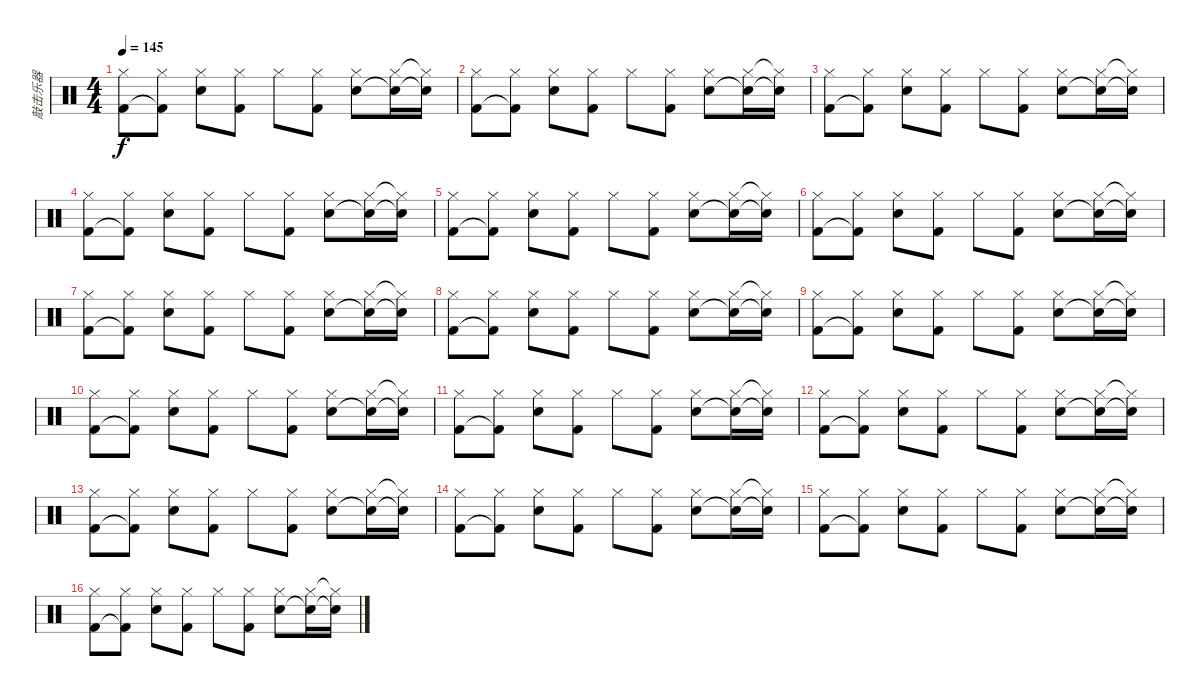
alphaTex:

\track ("敲击乐器" "敲击乐器") {instrument percussion}
\staff {score}
\articulation defaults
\ts (4 4)
\tempo 145
\clef neutral
\ks c
("Hi-Hat (closed)" "Kick (hit) 2").8{dy f} ("Hi-Hat (closed)" "Kick (hit) 2"{t}).8 ("Hi-Hat (closed)" "Snare (hit) 2").8 ("Hi-Hat (closed)" "Kick (hit) 2").8 "Hi-Hat (closed)".8 ("Hi-Hat (closed)" "Kick (hit) 2").8 ("Hi-Hat (closed)" "Snare (hit) 2").8 ("Hi-Hat (closed)" "Snare (hit) 2"{t}).16 ("Hi-Hat (closed)"{t} "Snare (hit) 2"{t}).16 |
("Hi-Hat (closed)" "Kick (hit) 2").8 ("Hi-Hat (closed)" "Kick (hit) 2"{t}).8 ("Hi-Hat (closed)" "Snare (hit) 2").8 ("Hi-Hat (closed)" "Kick (hit) 2").8 "Hi-Hat (closed)".8 ("Hi-Hat (closed)" "Kick (hit) 2").8 ("Hi-Hat (closed)" "Snare (hit) 2").8 ("Hi-Hat (closed)" "Snare (hit) 2"{t}).16 ("Hi-Hat (closed)"{t} "Snare (hit) 2"{t}).16 |
("Hi-Hat (closed)" "Kick (hit) 2").8 ("Hi-Hat (closed)" "Kick (hit) 2"{t}).8 ("Hi-Hat (closed)" "Snare (hit) 2").8 ("Hi-Hat (closed)" "Kick (hit) 2").8 "Hi-Hat (closed)".8 ("Hi-Hat (closed)" "Kick (hit) 2").8 ("Hi-Hat (closed)" "Snare (hit) 2").8 ("Hi-Hat (closed)" "Snare (hit) 2"{t}).16 ("Hi-Hat (closed)"{t} "Snare (hit) 2"{t}).16 |
("Hi-Hat (closed)" "Kick (hit) 2").8 ("Hi-Hat (closed)" "Kick (hit) 2"{t}).8 ("Hi-Hat (closed)" "Snare (hit) 2").8 ("Hi-Hat (closed)" "Kick (hit) 2").8 "Hi-Hat (closed)".8 ("Hi-Hat (closed)" "Kick (hit) 2").8 ("Hi-Hat (closed)" "Snare (hit) 2").8 ("Hi-Hat (closed)" "Snare (hit) 2"{t}).16 ("Hi-Hat (closed)"{t} "Snare (hit) 2"{t}).16 |
("Hi-Hat (closed)" "Kick (hit) 2").8 ("Hi-Hat (closed)" "Kick (hit) 2"{t}).8 ("Hi-Hat (closed)" "Snare (hit) 2").8 ("Hi-Hat (closed)" "Kick (hit) 2").8 "Hi-Hat (closed)".8 ("Hi-Hat (closed)" "Kick (hit) 2").8 ("Hi-Hat (closed)" "Snare (hit) 2").8 ("Hi-Hat (closed)" "Snare (hit) 2"{t}).16 ("Hi-Hat (closed)"{t} "Snare (hit) 2"{t}).16 |
("Hi-Hat (closed)" "Kick (hit) 2").8 ("Hi-Hat (closed)" "Kick (hit) 2"{t}).8 ("Hi-Hat (closed)" "Snare (hit) 2").8 ("Hi-Hat (closed)" "Kick (hit) 2").8 "Hi-Hat (closed)".8 ("Hi-Hat (closed)" "Kick (hit) 2").8 ("Hi-Hat (closed)" "Snare (hit) 2").8 ("Hi-Hat (closed)" "Snare (hit) 2"{t}).16 ("Hi-Hat (closed)"{t} "Snare (hit) 2"{t}).16 |
("Hi-Hat (closed)" "Kick (hit) 2").8 ("Hi-Hat (closed)" "Kick (hit) 2"{t}).8 ("Hi-Hat (closed)" "Snare (hit) 2").8 ("Hi-Hat (closed)" "Kick (hit) 2").8 "Hi-Hat (closed)".8 ("Hi-Hat (closed)" "Kick (hit) 2").8 ("Hi-Hat (closed)" "Snare (hit) 2").8 ("Hi-Hat (closed)" "Snare (hit) 2"{t}).16 ("Hi-Hat (closed)"{t} "Snare (hit) 2"{t}).16 |
("Hi-Hat (closed)" "Kick (hit) 2").8 ("Hi-Hat (closed)" "Kick (hit) 2"{t}).8 ("Hi-Hat (closed)" "Snare (hit) 2").8 ("Hi-Hat (closed)" "Kick (hit) 2").8 "Hi-Hat (closed)".8 ("Hi-Hat (closed)" "Kick (hit) 2").8 ("Hi-Hat (closed)" "Snare (hit) 2").8 ("Hi-Hat (closed)" "Snare (hit) 2"{t}).16 ("Hi-Hat (closed)"{t} "Snare (hit) 2"{t}).16 |
("Hi-Hat (closed)" "Kick (hit) 2").8 ("Hi-Hat (closed)" "Kick (hit) 2"{t}).8 ("Hi-Hat (closed)" "Snare (hit) 2").8 ("Hi-Hat (closed)" "Kick (hit) 2").8 "Hi-Hat (closed)".8 ("Hi-Hat (closed)" "Kick (hit) 2").8 ("Hi-Hat (closed)" "Snare (hit) 2").8 ("Hi-Hat (closed)" "Snare (hit) 2"{t}).16 ("Hi-Hat (closed)"{t} "Snare (hit) 2"{t}).16 |
("Hi-Hat (closed)" "Kick (hit) 2").8 ("Hi-Hat (closed)" "Kick (hit) 2"{t}).8 ("Hi-Hat (closed)" "Snare (hit) 2").8 ("Hi-Hat (closed)" "Kick (hit) 2").8 "Hi-Hat (closed)".8 ("Hi-Hat (closed)" "Kick (hit) 2").8 ("Hi-Hat (closed)" "Snare (hit) 2").8 ("Hi-Hat (closed)" "Snare (hit) 2"{t}).16 ("Hi-Hat (closed)"{t} "Snare (hit) 2"{t}).16 |
("Hi-Hat (closed)" "Kick (hit) 2").8 ("Hi-Hat (closed)" "Kick (hit) 2"{t}).8 ("Hi-Hat (closed)" "Snare (hit) 2").8 ("Hi-Hat (closed)" "Kick (hit) 2").8 "Hi-Hat (closed)".8 ("Hi-Hat (closed)" "Kick (hit) 2").8 ("Hi-Hat (closed)" "Snare (hit) 2").8 ("Hi-Hat (closed)" "Snare (hit) 2"{t}).16 ("Hi-Hat (closed)"{t} "Snare (hit) 2"{t}).16 |
("Hi-Hat (closed)" "Kick (hit) 2").8 ("Hi-Hat (closed)" "Kick (hit) 2"{t}).8 ("Hi-Hat (closed)" "Snare (hit) 2").8 ("Hi-Hat (closed)" "Kick (hit) 2").8 "Hi-Hat (closed)".8 ("Hi-Hat (closed)" "Kick (hit) 2").8 ("Hi-Hat (closed)" "Snare (hit) 2").8 ("Hi-Hat (closed)" "Snare (hit) 2"{t}).16 ("Hi-Hat (closed)"{t} "Snare (hit) 2"{t}).16 |
("Hi-Hat (closed)" "Kick (hit) 2").8 ("Hi-Hat (closed)" "Kick (hit) 2"{t}).8 ("Hi-Hat (closed)" "Snare (hit) 2").8 ("Hi-Hat (closed)" "Kick (hit) 2").8 "Hi-Hat (closed)".8 ("Hi-Hat (closed)" "Kick (hit) 2").8 ("Hi-Hat (closed)" "Snare (hit) 2").8 ("Hi-Hat (closed)" "Snare (hit) 2"{t}).16 ("Hi-Hat (closed)"{t} "Snare (hit) 2"{t}).16 |
("Hi-Hat (closed)" "Kick (hit) 2").8 ("Hi-Hat (closed)" "Kick (hit) 2"{t}).8 ("Hi-Hat (closed)" "Snare (hit) 2").8 ("Hi-Hat (closed)" "Kick (hit) 2").8 "Hi-Hat (closed)".8 ("Hi-Hat (closed)" "Kick (hit) 2").8 ("Hi-Hat (closed)" "Snare (hit) 2").8 ("Hi-Hat (closed)" "Snare (hit) 2"{t}).16 ("Hi-Hat (closed)"{t} "Snare (hit) 2"{t}).16 |
("Hi-Hat (closed)" "Kick (hit) 2").8 ("Hi-Hat (closed)" "Kick (hit) 2"{t}).8 ("Hi-Hat (closed)" "Snare (hit) 2").8 ("Hi-Hat (closed)" "Kick (hit) 2").8 "Hi-Hat (closed)".8 ("Hi-Hat (closed)" "Kick (hit) 2").8 ("Hi-Hat (closed)" "Snare (hit) 2").8 ("Hi-Hat (closed)" "Snare (hit) 2"{t}).16 ("Hi-Hat (closed)"{t} "Snare (hit) 2"{t}).16 |
("Hi-Hat (closed)" "Kick (hit) 2").8 ("Hi-Hat (closed)" "Kick (hit) 2"{t}).8 ("Hi-Hat (closed)" "Snare (hit) 2").8 ("Hi-Hat (closed)" "Kick (hit) 2").8 "Hi-Hat (closed)".8 ("Hi-Hat (closed)" "Kick (hit) 2").8 ("Hi-Hat (closed)" "Snare (hit) 2").8 ("Hi-Hat (closed)" "Snare (hit) 2"{t}).16 ("Hi-Hat (closed)"{t} "Snare (hit) 2"{t}).16
